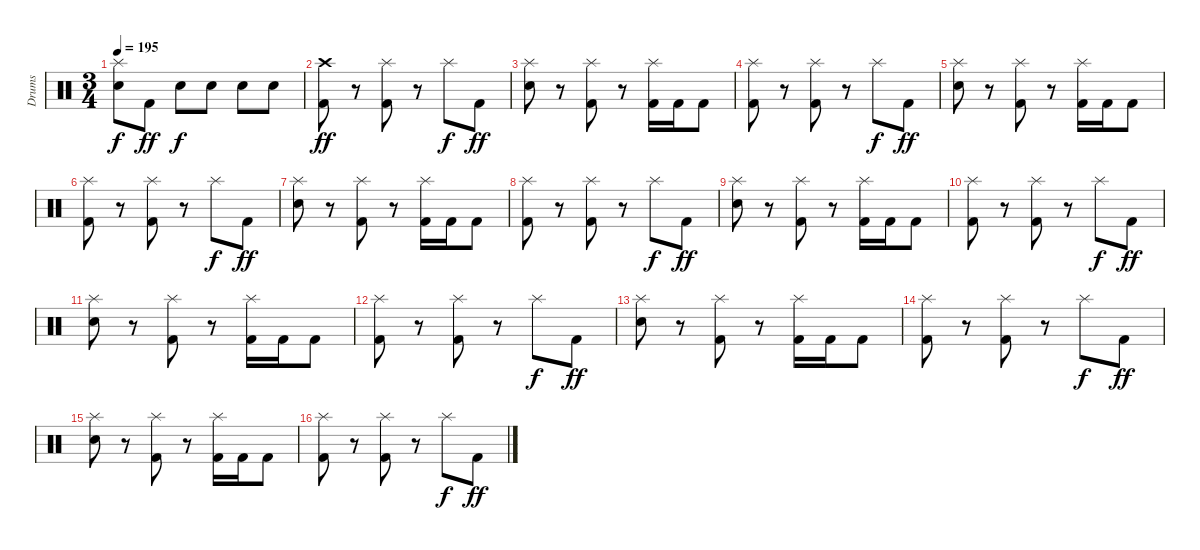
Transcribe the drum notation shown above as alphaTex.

\track ("Drums" "Drums") {instrument percussion}
\staff {score}
\articulation defaults
\ts (3 4)
\tempo 195
\clef neutral
\ks c
("Splash (hit)" "Electric Snare (hit)").8{dy f} "Kick (hit) 2".8{dy ff} "Electric Snare (hit)".8{dy f} "Electric Snare (hit)".8 "Electric Snare (hit)".8 "Electric Snare (hit)".8 |
("Crash high (hit)" "Kick (hit) 2").8{dy ff} r.8 ("Splash (hit)" "Kick (hit) 2").8 r.8 "Splash (hit)".8{dy f} "Kick (hit) 2".8{dy ff} |
("Splash (hit)" "Electric Snare (hit)").8 r.8 ("Splash (hit)" "Kick (hit) 2").8 r.8 ("Splash (hit)" "Kick (hit) 2").16 "Kick (hit) 2".16 "Kick (hit) 2".8 |
("Splash (hit)" "Kick (hit) 2").8 r.8 ("Splash (hit)" "Kick (hit) 2").8 r.8 "Splash (hit)".8{dy f} "Kick (hit) 2".8{dy ff} |
("Splash (hit)" "Electric Snare (hit)").8 r.8 ("Splash (hit)" "Kick (hit) 2").8 r.8 ("Splash (hit)" "Kick (hit) 2").16 "Kick (hit) 2".16 "Kick (hit) 2".8 |
("Splash (hit)" "Kick (hit) 2").8 r.8 ("Splash (hit)" "Kick (hit) 2").8 r.8 "Splash (hit)".8{dy f} "Kick (hit) 2".8{dy ff} |
("Splash (hit)" "Electric Snare (hit)").8 r.8 ("Splash (hit)" "Kick (hit) 2").8 r.8 ("Splash (hit)" "Kick (hit) 2").16 "Kick (hit) 2".16 "Kick (hit) 2".8 |
("Splash (hit)" "Kick (hit) 2").8 r.8 ("Splash (hit)" "Kick (hit) 2").8 r.8 "Splash (hit)".8{dy f} "Kick (hit) 2".8{dy ff} |
("Splash (hit)" "Electric Snare (hit)").8 r.8 ("Splash (hit)" "Kick (hit) 2").8 r.8 ("Splash (hit)" "Kick (hit) 2").16 "Kick (hit) 2".16 "Kick (hit) 2".8 |
("Splash (hit)" "Kick (hit) 2").8 r.8 ("Splash (hit)" "Kick (hit) 2").8 r.8 "Splash (hit)".8{dy f} "Kick (hit) 2".8{dy ff} |
("Splash (hit)" "Electric Snare (hit)").8 r.8 ("Splash (hit)" "Kick (hit) 2").8 r.8 ("Splash (hit)" "Kick (hit) 2").16 "Kick (hit) 2".16 "Kick (hit) 2".8 |
("Splash (hit)" "Kick (hit) 2").8 r.8 ("Splash (hit)" "Kick (hit) 2").8 r.8 "Splash (hit)".8{dy f} "Kick (hit) 2".8{dy ff} |
("Splash (hit)" "Electric Snare (hit)").8 r.8 ("Splash (hit)" "Kick (hit) 2").8 r.8 ("Splash (hit)" "Kick (hit) 2").16 "Kick (hit) 2".16 "Kick (hit) 2".8 |
("Splash (hit)" "Kick (hit) 2").8 r.8 ("Splash (hit)" "Kick (hit) 2").8 r.8 "Splash (hit)".8{dy f} "Kick (hit) 2".8{dy ff} |
("Splash (hit)" "Electric Snare (hit)").8 r.8 ("Splash (hit)" "Kick (hit) 2").8 r.8 ("Splash (hit)" "Kick (hit) 2").16 "Kick (hit) 2".16 "Kick (hit) 2".8 |
("Splash (hit)" "Kick (hit) 2").8 r.8 ("Splash (hit)" "Kick (hit) 2").8 r.8 "Splash (hit)".8{dy f} "Kick (hit) 2".8{dy ff}
